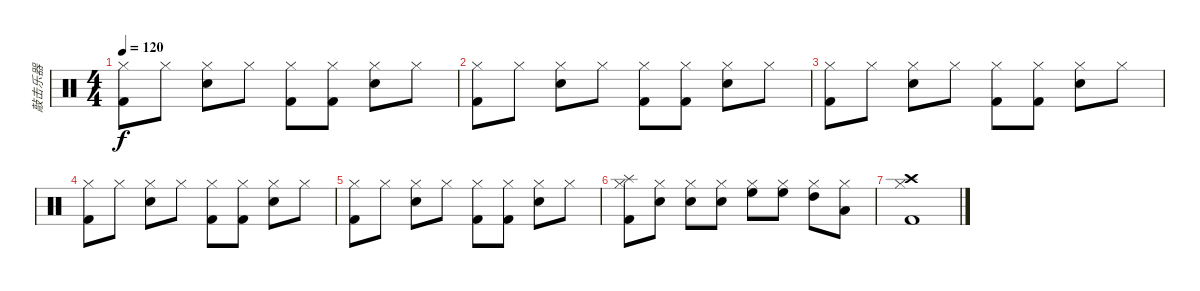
\track ("敲击乐器" "敲击乐器") {instrument percussion}
\staff {score}
\articulation defaults
\ts (4 4)
\tempo 120
\clef neutral
\ks c
("Kick (hit) 2" "Hi-Hat (closed)").8{dy f} "Hi-Hat (closed)".8 ("Electric Snare (hit)" "Hi-Hat (closed)").8 "Hi-Hat (closed)".8 ("Kick (hit) 2" "Hi-Hat (closed)").8 ("Hi-Hat (closed)" "Kick (hit) 2").8 ("Electric Snare (hit)" "Hi-Hat (closed)").8 "Hi-Hat (closed)".8 |
("Kick (hit) 2" "Hi-Hat (closed)").8 "Hi-Hat (closed)".8 ("Electric Snare (hit)" "Hi-Hat (closed)").8 "Hi-Hat (closed)".8 ("Kick (hit) 2" "Hi-Hat (closed)").8 ("Hi-Hat (closed)" "Kick (hit) 2").8 ("Electric Snare (hit)" "Hi-Hat (closed)").8 "Hi-Hat (closed)".8 |
("Kick (hit) 2" "Hi-Hat (closed)").8 "Hi-Hat (closed)".8 ("Electric Snare (hit)" "Hi-Hat (closed)").8 "Hi-Hat (closed)".8 ("Kick (hit) 2" "Hi-Hat (closed)").8 ("Hi-Hat (closed)" "Kick (hit) 2").8 ("Electric Snare (hit)" "Hi-Hat (closed)").8 "Hi-Hat (closed)".8 |
("Kick (hit) 2" "Hi-Hat (closed)").8 "Hi-Hat (closed)".8 ("Electric Snare (hit)" "Hi-Hat (closed)").8 "Hi-Hat (closed)".8 ("Kick (hit) 2" "Hi-Hat (closed)").8 ("Hi-Hat (closed)" "Kick (hit) 2").8 ("Electric Snare (hit)" "Hi-Hat (closed)").8 "Hi-Hat (closed)".8 |
("Kick (hit) 2" "Hi-Hat (closed)").8 "Hi-Hat (closed)".8 ("Electric Snare (hit)" "Hi-Hat (closed)").8 "Hi-Hat (closed)".8 ("Kick (hit) 2" "Hi-Hat (closed)").8 ("Hi-Hat (closed)" "Kick (hit) 2").8 ("Electric Snare (hit)" "Hi-Hat (closed)").8 "Hi-Hat (closed)".8 |
("Kick (hit) 2" "Hi-Hat (closed)" "Splash (hit)").8 ("Hi-Hat (closed)" "Electric Snare (hit)").8 ("Electric Snare (hit)" "Hi-Hat (closed)").8 ("Hi-Hat (closed)" "Electric Snare (hit)").8 ("High Floor Tom (hit)" "Hi-Hat (closed)").8 ("Hi-Hat (closed)" "High Floor Tom (hit)").8 ("High Tom (hit)" "Hi-Hat (closed)").8 ("Low Tom (hit)" "Hi-Hat (closed)").8 |
("Kick (hit) 2" "Crash high (hit)" "Hi-Hat (closed)").1
